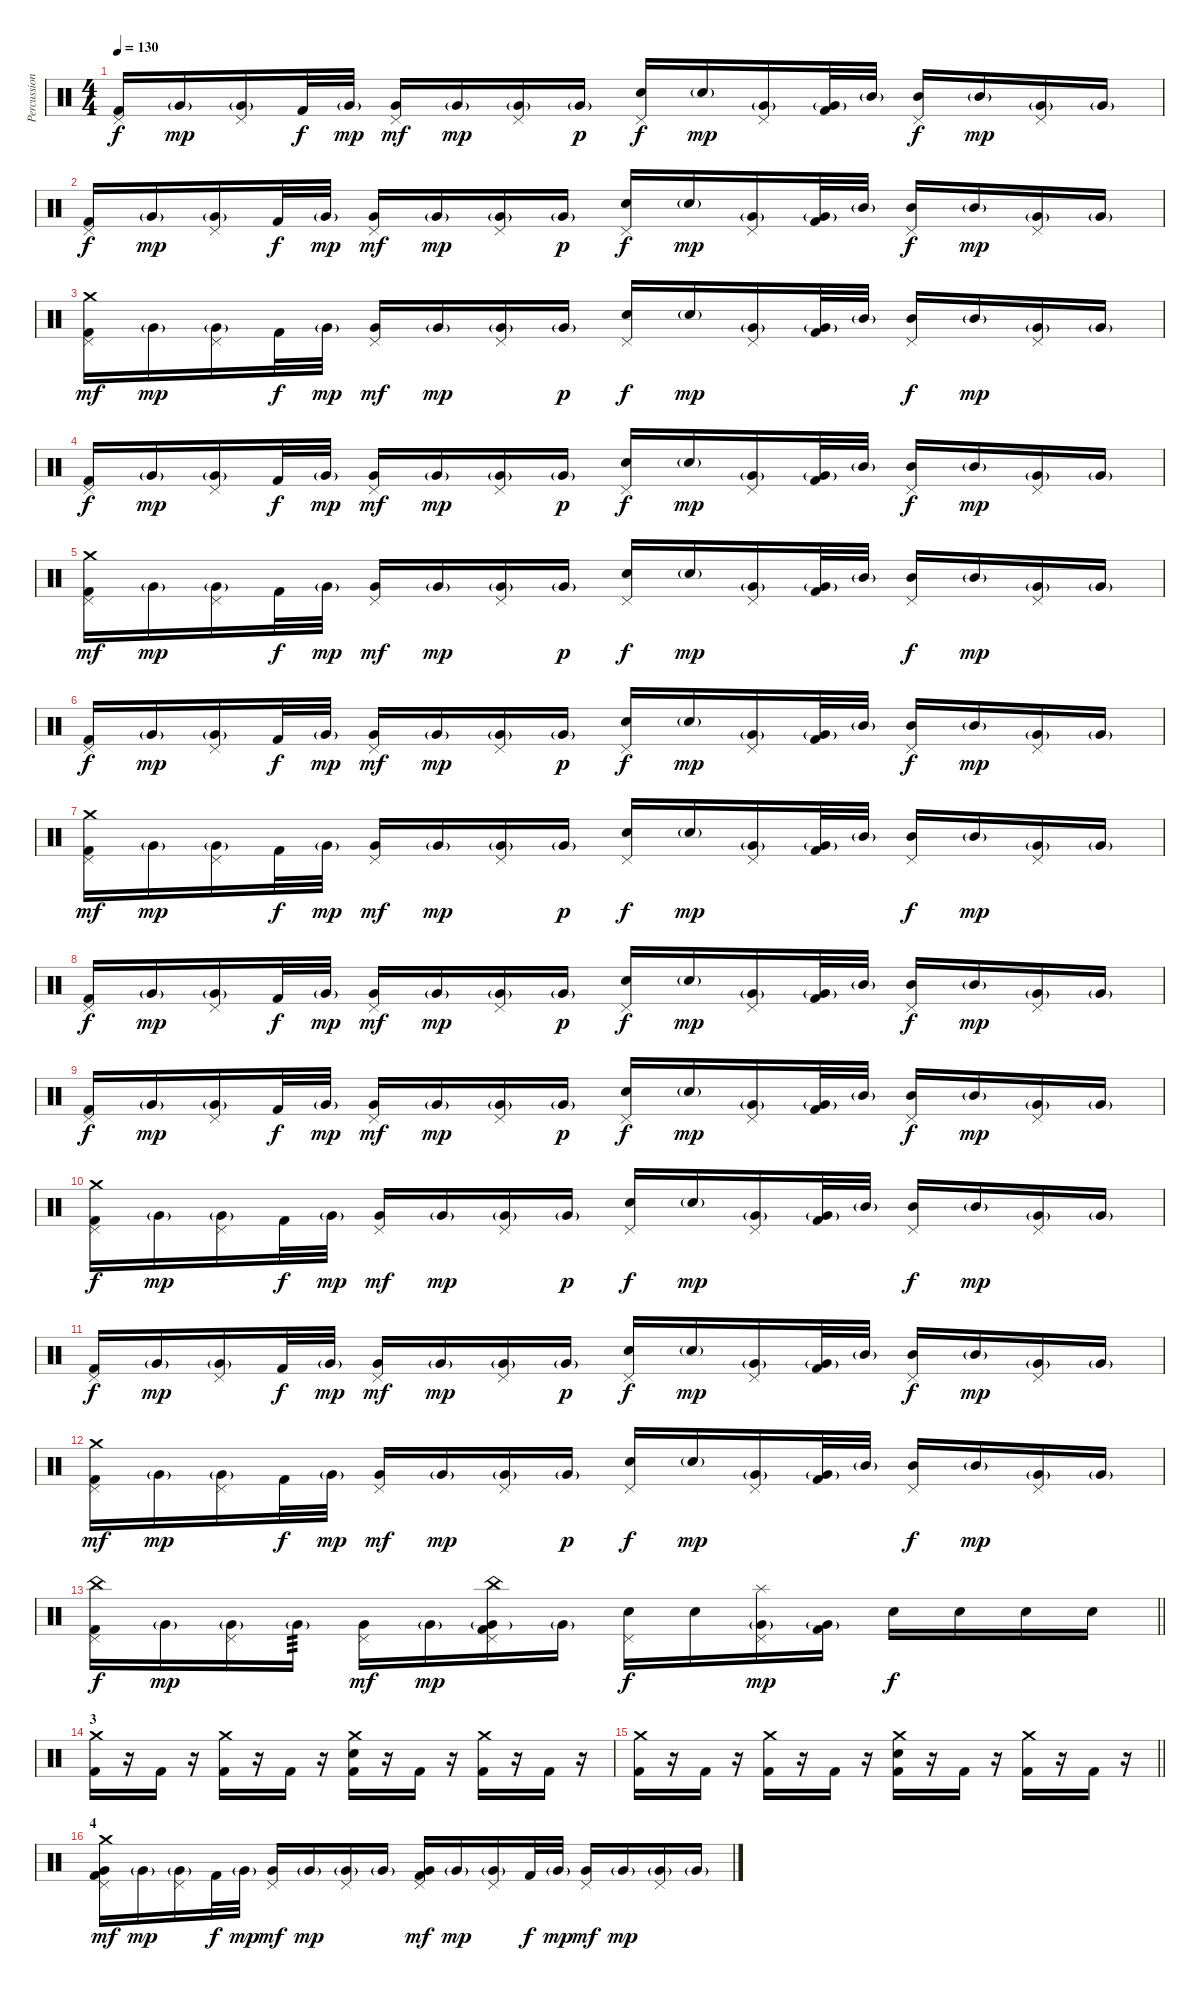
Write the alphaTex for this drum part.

\track ("Percussion" "Percussion") {instrument percussion}
\staff {score}
\articulation defaults
\ts (4 4)
\tempo 130
\clef neutral
\ks c
("Pedal Hi-Hat (hit)" "Kick (hit) 2").16{dy f} "Very Low Tom (hit)"{g}.16{dy mp} ("Pedal Hi-Hat (hit)" "Very Low Tom (hit)"{g}).16 "Kick (hit) 2".32{dy f} "Very Low Tom (hit)"{g}.32{dy mp} ("Pedal Hi-Hat (hit)" "Very Low Tom (hit)").16{dy mf} "Very Low Tom (hit)"{g}.16{dy mp} ("Pedal Hi-Hat (hit)" "Very Low Tom (hit)"{g}).16 "Very Low Tom (hit)"{g}.16{dy p} ("Pedal Hi-Hat (hit)" "Snare (hit) 2").16{dy f} "Snare (hit) 2"{g}.16{dy mp} ("Pedal Hi-Hat (hit)" "Very Low Tom (hit)"{g}).16 ("Very Low Tom (hit)"{g} "Kick (hit) 2").32 "Mid Tom (hit)"{g}.32 ("Pedal Hi-Hat (hit)" "Mid Tom (hit)").16{dy f} "Mid Tom (hit)"{g}.16{dy mp} ("Pedal Hi-Hat (hit)" "Very Low Tom (hit)"{g}).16 "Very Low Tom (hit)"{g}.16 |
("Pedal Hi-Hat (hit)" "Kick (hit) 2").16{dy f} "Very Low Tom (hit)"{g}.16{dy mp} ("Pedal Hi-Hat (hit)" "Very Low Tom (hit)"{g}).16 "Kick (hit) 2".32{dy f} "Very Low Tom (hit)"{g}.32{dy mp} ("Pedal Hi-Hat (hit)" "Very Low Tom (hit)").16{dy mf} "Very Low Tom (hit)"{g}.16{dy mp} ("Pedal Hi-Hat (hit)" "Very Low Tom (hit)"{g}).16 "Very Low Tom (hit)"{g}.16{dy p} ("Pedal Hi-Hat (hit)" "Snare (hit) 2").16{dy f} "Snare (hit) 2"{g}.16{dy mp} ("Pedal Hi-Hat (hit)" "Very Low Tom (hit)"{g}).16 ("Very Low Tom (hit)"{g} "Kick (hit) 2").32 "Mid Tom (hit)"{g}.32 ("Pedal Hi-Hat (hit)" "Mid Tom (hit)").16{dy f} "Mid Tom (hit)"{g}.16{dy mp} ("Pedal Hi-Hat (hit)" "Very Low Tom (hit)"{g}).16 "Very Low Tom (hit)"{g}.16 |
("Crash medium (hit)" "Pedal Hi-Hat (hit)" "Kick (hit) 2").16{dy mf} "Very Low Tom (hit)"{g}.16{dy mp} ("Pedal Hi-Hat (hit)" "Very Low Tom (hit)"{g}).16 "Kick (hit) 2".32{dy f} "Very Low Tom (hit)"{g}.32{dy mp} ("Pedal Hi-Hat (hit)" "Very Low Tom (hit)").16{dy mf} "Very Low Tom (hit)"{g}.16{dy mp} ("Pedal Hi-Hat (hit)" "Very Low Tom (hit)"{g}).16 "Very Low Tom (hit)"{g}.16{dy p} ("Pedal Hi-Hat (hit)" "Snare (hit) 2").16{dy f} "Snare (hit) 2"{g}.16{dy mp} ("Pedal Hi-Hat (hit)" "Very Low Tom (hit)"{g}).16 ("Very Low Tom (hit)"{g} "Kick (hit) 2").32 "Mid Tom (hit)"{g}.32 ("Pedal Hi-Hat (hit)" "Mid Tom (hit)").16{dy f} "Mid Tom (hit)"{g}.16{dy mp} ("Pedal Hi-Hat (hit)" "Very Low Tom (hit)"{g}).16 "Very Low Tom (hit)"{g}.16 |
("Pedal Hi-Hat (hit)" "Kick (hit) 2").16{dy f} "Very Low Tom (hit)"{g}.16{dy mp} ("Pedal Hi-Hat (hit)" "Very Low Tom (hit)"{g}).16 "Kick (hit) 2".32{dy f} "Very Low Tom (hit)"{g}.32{dy mp} ("Pedal Hi-Hat (hit)" "Very Low Tom (hit)").16{dy mf} "Very Low Tom (hit)"{g}.16{dy mp} ("Pedal Hi-Hat (hit)" "Very Low Tom (hit)"{g}).16 "Very Low Tom (hit)"{g}.16{dy p} ("Pedal Hi-Hat (hit)" "Snare (hit) 2").16{dy f} "Snare (hit) 2"{g}.16{dy mp} ("Pedal Hi-Hat (hit)" "Very Low Tom (hit)"{g}).16 ("Very Low Tom (hit)"{g} "Kick (hit) 2").32 "Mid Tom (hit)"{g}.32 ("Pedal Hi-Hat (hit)" "Mid Tom (hit)").16{dy f} "Mid Tom (hit)"{g}.16{dy mp} ("Pedal Hi-Hat (hit)" "Very Low Tom (hit)"{g}).16 "Very Low Tom (hit)"{g}.16 |
("Crash medium (hit)" "Pedal Hi-Hat (hit)" "Kick (hit) 2").16{dy mf} "Very Low Tom (hit)"{g}.16{dy mp} ("Pedal Hi-Hat (hit)" "Very Low Tom (hit)"{g}).16 "Kick (hit) 2".32{dy f} "Very Low Tom (hit)"{g}.32{dy mp} ("Pedal Hi-Hat (hit)" "Very Low Tom (hit)").16{dy mf} "Very Low Tom (hit)"{g}.16{dy mp} ("Pedal Hi-Hat (hit)" "Very Low Tom (hit)"{g}).16 "Very Low Tom (hit)"{g}.16{dy p} ("Pedal Hi-Hat (hit)" "Snare (hit) 2").16{dy f} "Snare (hit) 2"{g}.16{dy mp} ("Pedal Hi-Hat (hit)" "Very Low Tom (hit)"{g}).16 ("Very Low Tom (hit)"{g} "Kick (hit) 2").32 "Mid Tom (hit)"{g}.32 ("Pedal Hi-Hat (hit)" "Mid Tom (hit)").16{dy f} "Mid Tom (hit)"{g}.16{dy mp} ("Pedal Hi-Hat (hit)" "Very Low Tom (hit)"{g}).16 "Very Low Tom (hit)"{g}.16 |
("Pedal Hi-Hat (hit)" "Kick (hit) 2").16{dy f} "Very Low Tom (hit)"{g}.16{dy mp} ("Pedal Hi-Hat (hit)" "Very Low Tom (hit)"{g}).16 "Kick (hit) 2".32{dy f} "Very Low Tom (hit)"{g}.32{dy mp} ("Pedal Hi-Hat (hit)" "Very Low Tom (hit)").16{dy mf} "Very Low Tom (hit)"{g}.16{dy mp} ("Pedal Hi-Hat (hit)" "Very Low Tom (hit)"{g}).16 "Very Low Tom (hit)"{g}.16{dy p} ("Pedal Hi-Hat (hit)" "Snare (hit) 2").16{dy f} "Snare (hit) 2"{g}.16{dy mp} ("Pedal Hi-Hat (hit)" "Very Low Tom (hit)"{g}).16 ("Very Low Tom (hit)"{g} "Kick (hit) 2").32 "Mid Tom (hit)"{g}.32 ("Pedal Hi-Hat (hit)" "Mid Tom (hit)").16{dy f} "Mid Tom (hit)"{g}.16{dy mp} ("Pedal Hi-Hat (hit)" "Very Low Tom (hit)"{g}).16 "Very Low Tom (hit)"{g}.16 |
("Crash medium (hit)" "Pedal Hi-Hat (hit)" "Kick (hit) 2").16{dy mf} "Very Low Tom (hit)"{g}.16{dy mp} ("Pedal Hi-Hat (hit)" "Very Low Tom (hit)"{g}).16 "Kick (hit) 2".32{dy f} "Very Low Tom (hit)"{g}.32{dy mp} ("Pedal Hi-Hat (hit)" "Very Low Tom (hit)").16{dy mf} "Very Low Tom (hit)"{g}.16{dy mp} ("Pedal Hi-Hat (hit)" "Very Low Tom (hit)"{g}).16 "Very Low Tom (hit)"{g}.16{dy p} ("Pedal Hi-Hat (hit)" "Snare (hit) 2").16{dy f} "Snare (hit) 2"{g}.16{dy mp} ("Pedal Hi-Hat (hit)" "Very Low Tom (hit)"{g}).16 ("Very Low Tom (hit)"{g} "Kick (hit) 2").32 "Mid Tom (hit)"{g}.32 ("Pedal Hi-Hat (hit)" "Mid Tom (hit)").16{dy f} "Mid Tom (hit)"{g}.16{dy mp} ("Pedal Hi-Hat (hit)" "Very Low Tom (hit)"{g}).16 "Very Low Tom (hit)"{g}.16 |
("Pedal Hi-Hat (hit)" "Kick (hit) 2").16{dy f} "Very Low Tom (hit)"{g}.16{dy mp} ("Pedal Hi-Hat (hit)" "Very Low Tom (hit)"{g}).16 "Kick (hit) 2".32{dy f} "Very Low Tom (hit)"{g}.32{dy mp} ("Pedal Hi-Hat (hit)" "Very Low Tom (hit)").16{dy mf} "Very Low Tom (hit)"{g}.16{dy mp} ("Pedal Hi-Hat (hit)" "Very Low Tom (hit)"{g}).16 "Very Low Tom (hit)"{g}.16{dy p} ("Pedal Hi-Hat (hit)" "Snare (hit) 2").16{dy f} "Snare (hit) 2"{g}.16{dy mp} ("Pedal Hi-Hat (hit)" "Very Low Tom (hit)"{g}).16 ("Very Low Tom (hit)"{g} "Kick (hit) 2").32 "Mid Tom (hit)"{g}.32 ("Pedal Hi-Hat (hit)" "Mid Tom (hit)").16{dy f} "Mid Tom (hit)"{g}.16{dy mp} ("Pedal Hi-Hat (hit)" "Very Low Tom (hit)"{g}).16 "Very Low Tom (hit)"{g}.16 |
("Pedal Hi-Hat (hit)" "Kick (hit) 2").16{dy f} "Very Low Tom (hit)"{g}.16{dy mp} ("Pedal Hi-Hat (hit)" "Very Low Tom (hit)"{g}).16 "Kick (hit) 2".32{dy f} "Very Low Tom (hit)"{g}.32{dy mp} ("Pedal Hi-Hat (hit)" "Very Low Tom (hit)").16{dy mf} "Very Low Tom (hit)"{g}.16{dy mp} ("Pedal Hi-Hat (hit)" "Very Low Tom (hit)"{g}).16 "Very Low Tom (hit)"{g}.16{dy p} ("Pedal Hi-Hat (hit)" "Snare (hit) 2").16{dy f} "Snare (hit) 2"{g}.16{dy mp} ("Pedal Hi-Hat (hit)" "Very Low Tom (hit)"{g}).16 ("Very Low Tom (hit)"{g} "Kick (hit) 2").32 "Mid Tom (hit)"{g}.32 ("Pedal Hi-Hat (hit)" "Mid Tom (hit)").16{dy f} "Mid Tom (hit)"{g}.16{dy mp} ("Pedal Hi-Hat (hit)" "Very Low Tom (hit)"{g}).16 "Very Low Tom (hit)"{g}.16 |
("Crash medium (hit)" "Pedal Hi-Hat (hit)" "Kick (hit) 2").16{dy f} "Very Low Tom (hit)"{g}.16{dy mp} ("Pedal Hi-Hat (hit)" "Very Low Tom (hit)"{g}).16 "Kick (hit) 2".32{dy f} "Very Low Tom (hit)"{g}.32{dy mp} ("Pedal Hi-Hat (hit)" "Very Low Tom (hit)").16{dy mf} "Very Low Tom (hit)"{g}.16{dy mp} ("Pedal Hi-Hat (hit)" "Very Low Tom (hit)"{g}).16 "Very Low Tom (hit)"{g}.16{dy p} ("Pedal Hi-Hat (hit)" "Snare (hit) 2").16{dy f} "Snare (hit) 2"{g}.16{dy mp} ("Pedal Hi-Hat (hit)" "Very Low Tom (hit)"{g}).16 ("Very Low Tom (hit)"{g} "Kick (hit) 2").32 "Mid Tom (hit)"{g}.32 ("Pedal Hi-Hat (hit)" "Mid Tom (hit)").16{dy f} "Mid Tom (hit)"{g}.16{dy mp} ("Pedal Hi-Hat (hit)" "Very Low Tom (hit)"{g}).16 "Very Low Tom (hit)"{g}.16 |
("Pedal Hi-Hat (hit)" "Kick (hit) 2").16{dy f} "Very Low Tom (hit)"{g}.16{dy mp} ("Pedal Hi-Hat (hit)" "Very Low Tom (hit)"{g}).16 "Kick (hit) 2".32{dy f} "Very Low Tom (hit)"{g}.32{dy mp} ("Pedal Hi-Hat (hit)" "Very Low Tom (hit)").16{dy mf} "Very Low Tom (hit)"{g}.16{dy mp} ("Pedal Hi-Hat (hit)" "Very Low Tom (hit)"{g}).16 "Very Low Tom (hit)"{g}.16{dy p} ("Pedal Hi-Hat (hit)" "Snare (hit) 2").16{dy f} "Snare (hit) 2"{g}.16{dy mp} ("Pedal Hi-Hat (hit)" "Very Low Tom (hit)"{g}).16 ("Very Low Tom (hit)"{g} "Kick (hit) 2").32 "Mid Tom (hit)"{g}.32 ("Pedal Hi-Hat (hit)" "Mid Tom (hit)").16{dy f} "Mid Tom (hit)"{g}.16{dy mp} ("Pedal Hi-Hat (hit)" "Very Low Tom (hit)"{g}).16 "Very Low Tom (hit)"{g}.16 |
("Crash medium (hit)" "Pedal Hi-Hat (hit)" "Kick (hit) 2").16{dy mf} "Very Low Tom (hit)"{g}.16{dy mp} ("Pedal Hi-Hat (hit)" "Very Low Tom (hit)"{g}).16 "Kick (hit) 2".32{dy f} "Very Low Tom (hit)"{g}.32{dy mp} ("Pedal Hi-Hat (hit)" "Very Low Tom (hit)").16{dy mf} "Very Low Tom (hit)"{g}.16{dy mp} ("Pedal Hi-Hat (hit)" "Very Low Tom (hit)"{g}).16 "Very Low Tom (hit)"{g}.16{dy p} ("Pedal Hi-Hat (hit)" "Snare (hit) 2").16{dy f} "Snare (hit) 2"{g}.16{dy mp} ("Pedal Hi-Hat (hit)" "Very Low Tom (hit)"{g}).16 ("Very Low Tom (hit)"{g} "Kick (hit) 2").32 "Mid Tom (hit)"{g}.32 ("Pedal Hi-Hat (hit)" "Mid Tom (hit)").16{dy f} "Mid Tom (hit)"{g}.16{dy mp} ("Pedal Hi-Hat (hit)" "Very Low Tom (hit)"{g}).16 "Very Low Tom (hit)"{g}.16 |
\barLineRight lightlight
("China (hit)" "Pedal Hi-Hat (hit)" "Kick (hit) 2").16{dy f} "Very Low Tom (hit)"{g}.16{dy mp} ("Pedal Hi-Hat (hit)" "Very Low Tom (hit)"{g}).16 "Very Low Tom (hit)"{g}.16{tp 3} ("Pedal Hi-Hat (hit)" "Very Low Tom (hit)").16{dy mf} "Very Low Tom (hit)"{g}.16{dy mp} ("China (hit)" "Pedal Hi-Hat (hit)" "Very Low Tom (hit)"{g} "Kick (hit) 2").16 "Very Low Tom (hit)"{g}.16 ("Pedal Hi-Hat (hit)" "Snare (hit) 2").16{dy f} "Snare (hit) 2".16 ("Splash (hit)" "Pedal Hi-Hat (hit)" "Very Low Tom (hit)"{g}).16{dy mp} ("Very Low Tom (hit)"{g} "Kick (hit) 2").16 "Snare (hit) 2".16{dy f} "Snare (hit) 2".16 "Snare (hit) 2".16 "Snare (hit) 2".16 |
\section ("" "3")
("Crash medium (hit)" "Kick (hit) 2").16 r.16 "Kick (hit) 2".16 r.16 ("Crash medium (hit)" "Kick (hit) 2").16 r.16 "Kick (hit) 2".16 r.16 ("Crash medium (hit)" "Snare (hit) 2" "Kick (hit) 2").16 r.16 "Kick (hit) 2".16 r.16 ("Crash medium (hit)" "Kick (hit) 2").16 r.16 "Kick (hit) 2".16 r.16 |
\barLineRight lightlight
("Crash medium (hit)" "Kick (hit) 2").16 r.16 "Kick (hit) 2".16 r.16 ("Crash medium (hit)" "Kick (hit) 2").16 r.16 "Kick (hit) 2".16 r.16 ("Crash medium (hit)" "Snare (hit) 2" "Kick (hit) 2").16 r.16 "Kick (hit) 2".16 r.16 ("Crash medium (hit)" "Kick (hit) 2").16 r.16 "Kick (hit) 2".16 r.16 |
\section ("" "4")
("Crash medium (hit)" "Pedal Hi-Hat (hit)" "Very Low Tom (hit)" "Kick (hit) 2").16{dy mf} "Very Low Tom (hit)"{g}.16{dy mp} ("Pedal Hi-Hat (hit)" "Very Low Tom (hit)"{g}).16 "Kick (hit) 2".32{dy f} "Very Low Tom (hit)"{g}.32{dy mp} ("Pedal Hi-Hat (hit)" "Very Low Tom (hit)").16{dy mf} "Very Low Tom (hit)"{g}.16{dy mp} ("Pedal Hi-Hat (hit)" "Very Low Tom (hit)"{g}).16 "Very Low Tom (hit)"{g}.16 ("Pedal Hi-Hat (hit)" "Very Low Tom (hit)" "Kick (hit) 2").16{dy mf} "Very Low Tom (hit)"{g}.16{dy mp} ("Pedal Hi-Hat (hit)" "Very Low Tom (hit)"{g}).16 "Kick (hit) 2".32{dy f} "Very Low Tom (hit)"{g}.32{dy mp} ("Pedal Hi-Hat (hit)" "Very Low Tom (hit)").16{dy mf} "Very Low Tom (hit)"{g}.16{dy mp} ("Pedal Hi-Hat (hit)" "Very Low Tom (hit)"{g}).16 "Very Low Tom (hit)"{g}.16
